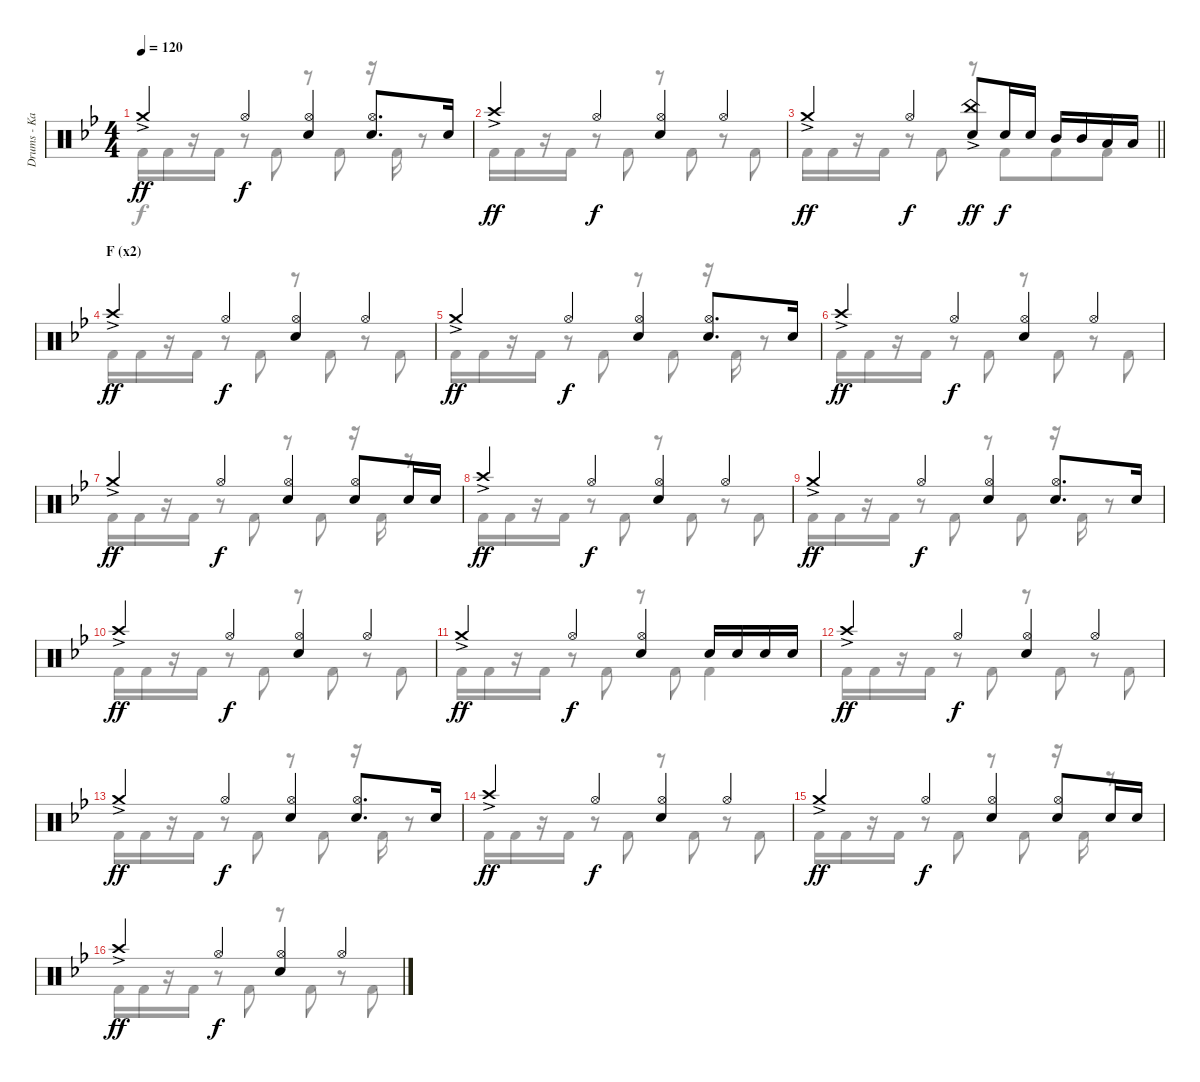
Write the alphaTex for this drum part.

\track ("Drums - Kai" "Drums - Ka") {instrument percussion}
\staff {score}
\articulation defaults
\voice
\ts (4 4)
\tempo 120
\clef neutral
\ks bb "Crash medium (hit)"{ac}.4{dy ff} "Hi-Hat (open)".4{dy f}
("Hi-Hat (open)" "Snare (hit) 2").4 ("Hi-Hat (open)" "Snare (hit) 2").8{d} "Snare (hit) 2".16 |
"Crash high (hit)"{ac}.4{dy ff} "Hi-Hat (open)".4{dy f} ("Hi-Hat (open)" "Snare (hit) 2").4 "Hi-Hat (open)".4 |
\barLineRight lightlight "Crash medium (hit)"{ac}.4{dy ff} "Hi-Hat (open)".4{dy f}
("China (hit)"{ac} "Snare (hit) 2").8{dy ff} "Snare (hit) 2".16{dy f} "Snare (hit) 2".16 "Mid Tom (hit)".16 "Mid Tom (hit)".16 "Low Tom (hit)".16 "Low Tom (hit)".16 |
\section ("" "F (x2)")
"Crash high (hit)"{ac}.4{dy ff} "Hi-Hat (open)".4{dy f} ("Hi-Hat (open)" "Snare (hit) 2").4 "Hi-Hat (open)".4 |
"Crash medium (hit)"{ac}.4{dy ff} "Hi-Hat (open)".4{dy f} ("Hi-Hat (open)" "Snare (hit) 2").4 ("Hi-Hat (open)" "Snare (hit) 2").8{d} "Snare (hit) 2".16 |
"Crash high (hit)"{ac}.4{dy ff} "Hi-Hat (open)".4{dy f} ("Hi-Hat (open)" "Snare (hit) 2").4 "Hi-Hat (open)".4 |
"Crash medium (hit)"{ac}.4{dy ff} "Hi-Hat (open)".4{dy f} ("Hi-Hat (open)" "Snare (hit) 2").4 ("Hi-Hat (open)" "Snare (hit) 2").8 "Snare (hit) 2".16 "Snare (hit) 2".16 |
"Crash high (hit)"{ac}.4{dy ff} "Hi-Hat (open)".4{dy f} ("Hi-Hat (open)" "Snare (hit) 2").4 "Hi-Hat (open)".4 |
"Crash medium (hit)"{ac}.4{dy ff} "Hi-Hat (open)".4{dy f} ("Hi-Hat (open)" "Snare (hit) 2").4 ("Hi-Hat (open)" "Snare (hit) 2").8{d} "Snare (hit) 2".16 |
"Crash high (hit)"{ac}.4{dy ff} "Hi-Hat (open)".4{dy f} ("Hi-Hat (open)" "Snare (hit) 2").4 "Hi-Hat (open)".4 |
"Crash medium (hit)"{ac}.4{dy ff} "Hi-Hat (open)".4{dy f} ("Hi-Hat (open)" "Snare (hit) 2").4 "Snare (hit) 2".16 "Snare (hit) 2".16 "Snare (hit) 2".16 "Snare (hit) 2".16 |
"Crash high (hit)"{ac}.4{dy ff} "Hi-Hat (open)".4{dy f} ("Hi-Hat (open)" "Snare (hit) 2").4 "Hi-Hat (open)".4 |
"Crash medium (hit)"{ac}.4{dy ff} "Hi-Hat (open)".4{dy f} ("Hi-Hat (open)" "Snare (hit) 2").4 ("Hi-Hat (open)" "Snare (hit) 2").8{d} "Snare (hit) 2".16 |
"Crash high (hit)"{ac}.4{dy ff} "Hi-Hat (open)".4{dy f} ("Hi-Hat (open)" "Snare (hit) 2").4 "Hi-Hat (open)".4 |
"Crash medium (hit)"{ac}.4{dy ff} "Hi-Hat (open)".4{dy f} ("Hi-Hat (open)" "Snare (hit) 2").4 ("Hi-Hat (open)" "Snare (hit) 2").8 "Snare (hit) 2".16 "Snare (hit) 2".16 |
"Crash high (hit)"{ac}.4{dy ff} "Hi-Hat (open)".4{dy f} ("Hi-Hat (open)" "Snare (hit) 2").4 "Hi-Hat (open)".4
\voice
\clef neutral
\ottava regular
\simile none
\ks bb "Kick (hit) 2".16{dy f} "Kick (hit) 2".16
r.16 "Kick (hit) 2".16 r.8 "Kick (hit) 2".8 r.8 "Kick (hit) 2".8 r.16 "Kick (hit) 2".16 r.8 |
"Kick (hit) 2".16 "Kick (hit) 2".16 r.16 "Kick (hit) 2".16 r.8 "Kick (hit) 2".8 r.8 "Kick (hit) 2".8 r.8 "Kick (hit) 2".8 |
\barLineRight lightlight "Kick (hit) 2".16 "Kick (hit) 2".16
r.16 "Kick (hit) 2".16 r.8 "Kick (hit) 2".8 r.8 "Kick (hit) 2".8{beam merge} "Kick (hit) 2".8 "Kick (hit) 2".8 |
"Kick (hit) 2".16 "Kick (hit) 2".16 r.16 "Kick (hit) 2".16 r.8 "Kick (hit) 2".8 r.8 "Kick (hit) 2".8 r.8 "Kick (hit) 2".8 |
"Kick (hit) 2".16 "Kick (hit) 2".16 r.16 "Kick (hit) 2".16 r.8 "Kick (hit) 2".8 r.8 "Kick (hit) 2".8 r.16 "Kick (hit) 2".16 r.8 |
"Kick (hit) 2".16 "Kick (hit) 2".16 r.16 "Kick (hit) 2".16 r.8 "Kick (hit) 2".8 r.8 "Kick (hit) 2".8 r.8 "Kick (hit) 2".8 |
"Kick (hit) 2".16 "Kick (hit) 2".16 r.16 "Kick (hit) 2".16 r.8 "Kick (hit) 2".8 r.8 "Kick (hit) 2".8 r.16 "Kick (hit) 2".16 r.8 |
"Kick (hit) 2".16 "Kick (hit) 2".16 r.16 "Kick (hit) 2".16 r.8 "Kick (hit) 2".8 r.8 "Kick (hit) 2".8 r.8 "Kick (hit) 2".8 |
"Kick (hit) 2".16 "Kick (hit) 2".16 r.16 "Kick (hit) 2".16 r.8 "Kick (hit) 2".8 r.8 "Kick (hit) 2".8 r.16 "Kick (hit) 2".16 r.8 |
"Kick (hit) 2".16 "Kick (hit) 2".16 r.16 "Kick (hit) 2".16 r.8 "Kick (hit) 2".8 r.8 "Kick (hit) 2".8 r.8 "Kick (hit) 2".8 |
"Kick (hit) 2".16 "Kick (hit) 2".16 r.16 "Kick (hit) 2".16 r.8 "Kick (hit) 2".8 r.8 "Kick (hit) 2".8 "Kick (hit) 2".4 |
"Kick (hit) 2".16 "Kick (hit) 2".16 r.16 "Kick (hit) 2".16 r.8 "Kick (hit) 2".8 r.8 "Kick (hit) 2".8 r.8 "Kick (hit) 2".8 |
"Kick (hit) 2".16 "Kick (hit) 2".16 r.16 "Kick (hit) 2".16 r.8 "Kick (hit) 2".8 r.8 "Kick (hit) 2".8 r.16 "Kick (hit) 2".16 r.8 |
"Kick (hit) 2".16 "Kick (hit) 2".16 r.16 "Kick (hit) 2".16 r.8 "Kick (hit) 2".8 r.8 "Kick (hit) 2".8 r.8 "Kick (hit) 2".8 |
"Kick (hit) 2".16 "Kick (hit) 2".16 r.16 "Kick (hit) 2".16 r.8 "Kick (hit) 2".8 r.8 "Kick (hit) 2".8 r.16 "Kick (hit) 2".16 r.8 |
"Kick (hit) 2".16 "Kick (hit) 2".16 r.16 "Kick (hit) 2".16 r.8 "Kick (hit) 2".8 r.8 "Kick (hit) 2".8 r.8 "Kick (hit) 2".8
